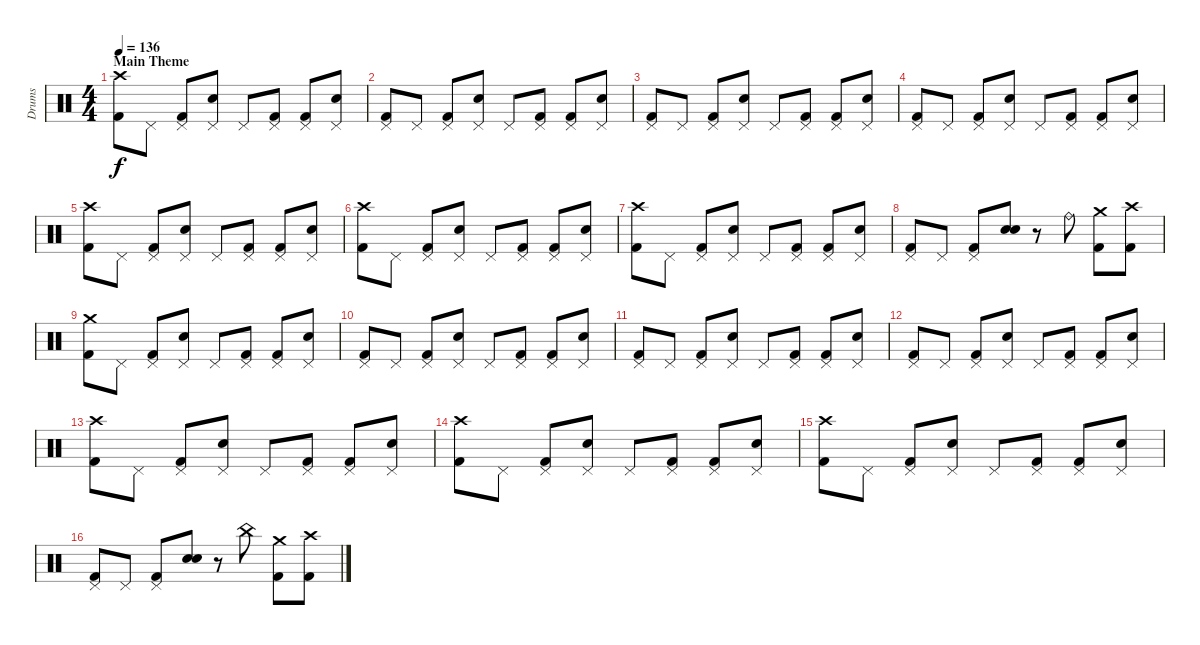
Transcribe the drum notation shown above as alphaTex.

\track ("Drums" "Drums") {instrument percussion}
\staff {score}
\articulation defaults
\ts (4 4)
\section ("" "Main Theme")
\tempo 136
\clef neutral
\ks c
("Crash high (hit)" "Kick (hit) 2").8{dy f} "Pedal Hi-Hat (hit)".8 ("Pedal Hi-Hat (hit)" "Kick (hit) 2").8 ("Pedal Hi-Hat (hit)" "Electric Snare (hit)").8 "Pedal Hi-Hat (hit)".8 ("Pedal Hi-Hat (hit)" "Kick (hit) 2").8 ("Pedal Hi-Hat (hit)" "Kick (hit) 2").8 ("Pedal Hi-Hat (hit)" "Electric Snare (hit)").8 |
("Pedal Hi-Hat (hit)" "Kick (hit) 2").8 "Pedal Hi-Hat (hit)".8 ("Pedal Hi-Hat (hit)" "Kick (hit) 2").8 ("Pedal Hi-Hat (hit)" "Electric Snare (hit)").8 "Pedal Hi-Hat (hit)".8 ("Pedal Hi-Hat (hit)" "Kick (hit) 2").8 ("Pedal Hi-Hat (hit)" "Kick (hit) 2").8 ("Pedal Hi-Hat (hit)" "Electric Snare (hit)").8 |
("Pedal Hi-Hat (hit)" "Kick (hit) 2").8 "Pedal Hi-Hat (hit)".8 ("Pedal Hi-Hat (hit)" "Kick (hit) 2").8 ("Pedal Hi-Hat (hit)" "Electric Snare (hit)").8 "Pedal Hi-Hat (hit)".8 ("Pedal Hi-Hat (hit)" "Kick (hit) 2").8 ("Pedal Hi-Hat (hit)" "Kick (hit) 2").8 ("Pedal Hi-Hat (hit)" "Electric Snare (hit)").8 |
("Pedal Hi-Hat (hit)" "Kick (hit) 2").8 "Pedal Hi-Hat (hit)".8 ("Pedal Hi-Hat (hit)" "Kick (hit) 2").8 ("Pedal Hi-Hat (hit)" "Electric Snare (hit)").8 "Pedal Hi-Hat (hit)".8 ("Pedal Hi-Hat (hit)" "Kick (hit) 2").8 ("Pedal Hi-Hat (hit)" "Kick (hit) 2").8 ("Pedal Hi-Hat (hit)" "Electric Snare (hit)").8 |
("Crash high (hit)" "Kick (hit) 2").8 "Pedal Hi-Hat (hit)".8 ("Pedal Hi-Hat (hit)" "Kick (hit) 2").8 ("Pedal Hi-Hat (hit)" "Electric Snare (hit)").8 "Pedal Hi-Hat (hit)".8 ("Pedal Hi-Hat (hit)" "Kick (hit) 2").8 ("Pedal Hi-Hat (hit)" "Kick (hit) 2").8 ("Pedal Hi-Hat (hit)" "Electric Snare (hit)").8 |
("Crash high (hit)" "Kick (hit) 2").8 "Pedal Hi-Hat (hit)".8 ("Pedal Hi-Hat (hit)" "Kick (hit) 2").8 ("Pedal Hi-Hat (hit)" "Electric Snare (hit)").8 "Pedal Hi-Hat (hit)".8 ("Pedal Hi-Hat (hit)" "Kick (hit) 2").8 ("Pedal Hi-Hat (hit)" "Kick (hit) 2").8 ("Pedal Hi-Hat (hit)" "Electric Snare (hit)").8 |
("Crash high (hit)" "Kick (hit) 2").8 "Pedal Hi-Hat (hit)".8 ("Pedal Hi-Hat (hit)" "Kick (hit) 2").8 ("Pedal Hi-Hat (hit)" "Electric Snare (hit)").8 "Pedal Hi-Hat (hit)".8 ("Pedal Hi-Hat (hit)" "Kick (hit) 2").8 ("Pedal Hi-Hat (hit)" "Kick (hit) 2").8 ("Pedal Hi-Hat (hit)" "Electric Snare (hit)").8 |
("Pedal Hi-Hat (hit)" "Kick (hit) 2").8 "Pedal Hi-Hat (hit)".8 ("Pedal Hi-Hat (hit)" "Kick (hit) 2").8 ("Electric Snare (hit)" "Electric Snare (hit)").8 r.8 "Ride (bell)".8 ("Crash medium (hit)" "Kick (hit) 2").8 ("Crash high (hit)" "Kick (hit) 2").8 |
("Crash medium (hit)" "Kick (hit) 2").8 "Pedal Hi-Hat (hit)".8 ("Pedal Hi-Hat (hit)" "Kick (hit) 2").8 ("Pedal Hi-Hat (hit)" "Electric Snare (hit)").8 "Pedal Hi-Hat (hit)".8 ("Pedal Hi-Hat (hit)" "Kick (hit) 2").8 ("Pedal Hi-Hat (hit)" "Kick (hit) 2").8 ("Pedal Hi-Hat (hit)" "Electric Snare (hit)").8 |
("Pedal Hi-Hat (hit)" "Kick (hit) 2").8 "Pedal Hi-Hat (hit)".8 ("Pedal Hi-Hat (hit)" "Kick (hit) 2").8 ("Pedal Hi-Hat (hit)" "Electric Snare (hit)").8 "Pedal Hi-Hat (hit)".8 ("Pedal Hi-Hat (hit)" "Kick (hit) 2").8 ("Pedal Hi-Hat (hit)" "Kick (hit) 2").8 ("Pedal Hi-Hat (hit)" "Electric Snare (hit)").8 |
("Pedal Hi-Hat (hit)" "Kick (hit) 2").8 "Pedal Hi-Hat (hit)".8 ("Pedal Hi-Hat (hit)" "Kick (hit) 2").8 ("Pedal Hi-Hat (hit)" "Electric Snare (hit)").8 "Pedal Hi-Hat (hit)".8 ("Pedal Hi-Hat (hit)" "Kick (hit) 2").8 ("Pedal Hi-Hat (hit)" "Kick (hit) 2").8 ("Pedal Hi-Hat (hit)" "Electric Snare (hit)").8 |
("Pedal Hi-Hat (hit)" "Kick (hit) 2").8 "Pedal Hi-Hat (hit)".8 ("Pedal Hi-Hat (hit)" "Kick (hit) 2").8 ("Pedal Hi-Hat (hit)" "Electric Snare (hit)").8 "Pedal Hi-Hat (hit)".8 ("Pedal Hi-Hat (hit)" "Kick (hit) 2").8 ("Pedal Hi-Hat (hit)" "Kick (hit) 2").8 ("Pedal Hi-Hat (hit)" "Electric Snare (hit)").8 |
("Crash high (hit)" "Kick (hit) 2").8 "Pedal Hi-Hat (hit)".8 ("Pedal Hi-Hat (hit)" "Kick (hit) 2").8 ("Pedal Hi-Hat (hit)" "Electric Snare (hit)").8 "Pedal Hi-Hat (hit)".8 ("Pedal Hi-Hat (hit)" "Kick (hit) 2").8 ("Pedal Hi-Hat (hit)" "Kick (hit) 2").8 ("Pedal Hi-Hat (hit)" "Electric Snare (hit)").8 |
("Crash high (hit)" "Kick (hit) 2").8 "Pedal Hi-Hat (hit)".8 ("Pedal Hi-Hat (hit)" "Kick (hit) 2").8 ("Pedal Hi-Hat (hit)" "Electric Snare (hit)").8 "Pedal Hi-Hat (hit)".8 ("Pedal Hi-Hat (hit)" "Kick (hit) 2").8 ("Pedal Hi-Hat (hit)" "Kick (hit) 2").8 ("Pedal Hi-Hat (hit)" "Electric Snare (hit)").8 |
("Crash high (hit)" "Kick (hit) 2").8 "Pedal Hi-Hat (hit)".8 ("Pedal Hi-Hat (hit)" "Kick (hit) 2").8 ("Pedal Hi-Hat (hit)" "Electric Snare (hit)").8 "Pedal Hi-Hat (hit)".8 ("Pedal Hi-Hat (hit)" "Kick (hit) 2").8 ("Pedal Hi-Hat (hit)" "Kick (hit) 2").8 ("Pedal Hi-Hat (hit)" "Electric Snare (hit)").8 |
("Pedal Hi-Hat (hit)" "Kick (hit) 2").8 "Pedal Hi-Hat (hit)".8 ("Pedal Hi-Hat (hit)" "Kick (hit) 2").8 ("Electric Snare (hit)" "Electric Snare (hit)").8 r.8 "China (hit)".8 ("Crash medium (hit)" "Kick (hit) 2").8 ("Crash high (hit)" "Kick (hit) 2").8
